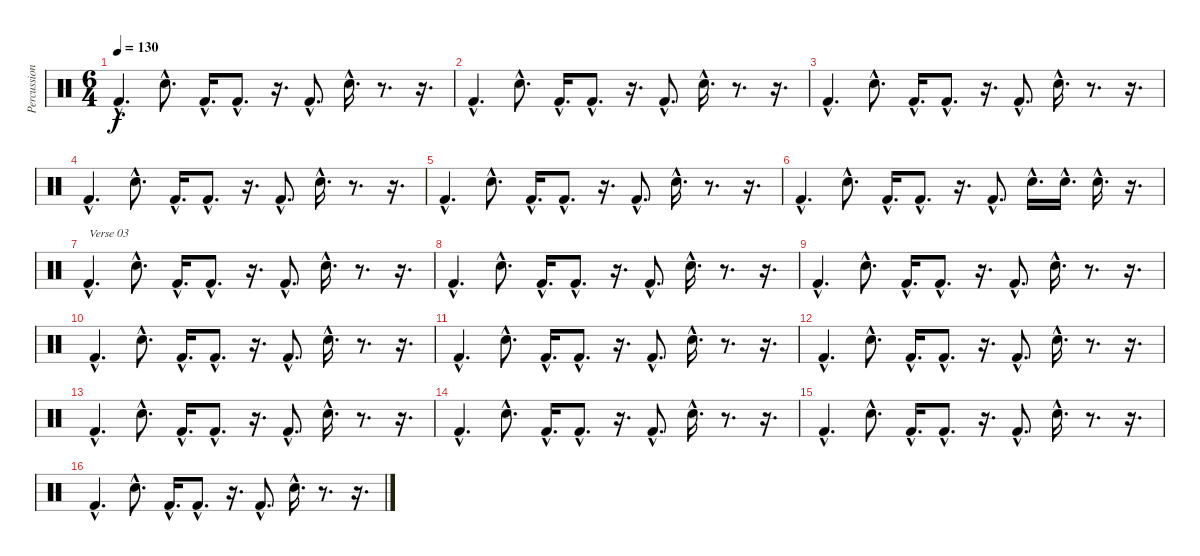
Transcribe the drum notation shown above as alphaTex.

\track ("Percussion" "Percussion") {instrument percussion}
\staff {score}
\articulation defaults
\ts (6 4)
\tempo 130
\clef neutral
\ks c "Kick (hit) 2"{hac}.4{d dy f} "Snare (hit) 2"{hac}.8{d} "Kick (hit) 2"{hac}.16{d} "Kick (hit) 2"{hac}.8{d}
r.16{d} "Kick (hit) 2"{hac}.8{d} "Snare (hit) 2"{hac}.16{d} r.8{d} r.16{d} |
"Kick (hit) 2"{hac}.4{d} "Snare (hit) 2"{hac}.8{d} "Kick (hit) 2"{hac}.16{d} "Kick (hit) 2"{hac}.8{d} r.16{d} "Kick (hit) 2"{hac}.8{d} "Snare (hit) 2"{hac}.16{d} r.8{d} r.16{d} |
"Kick (hit) 2"{hac}.4{d} "Snare (hit) 2"{hac}.8{d} "Kick (hit) 2"{hac}.16{d} "Kick (hit) 2"{hac}.8{d} r.16{d} "Kick (hit) 2"{hac}.8{d} "Snare (hit) 2"{hac}.16{d} r.8{d} r.16{d} |
"Kick (hit) 2"{hac}.4{d} "Snare (hit) 2"{hac}.8{d} "Kick (hit) 2"{hac}.16{d} "Kick (hit) 2"{hac}.8{d} r.16{d} "Kick (hit) 2"{hac}.8{d} "Snare (hit) 2"{hac}.16{d} r.8{d} r.16{d} |
"Kick (hit) 2"{hac}.4{d} "Snare (hit) 2"{hac}.8{d} "Kick (hit) 2"{hac}.16{d} "Kick (hit) 2"{hac}.8{d} r.16{d} "Kick (hit) 2"{hac}.8{d} "Snare (hit) 2"{hac}.16{d} r.8{d} r.16{d} |
"Kick (hit) 2"{hac}.4{d} "Snare (hit) 2"{hac}.8{d} "Kick (hit) 2"{hac}.16{d} "Kick (hit) 2"{hac}.8{d} r.16{d} "Kick (hit) 2"{hac}.8{d} "Snare (hit) 2"{hac}.16{d} "Snare (hit) 2"{hac}.16{d} "Snare (hit) 2"{hac}.16{d} r.16{d} |
"Kick (hit) 2"{hac}.4{d txt "Verse 03"} "Snare (hit) 2"{hac}.8{d} "Kick (hit) 2"{hac}.16{d} "Kick (hit) 2"{hac}.8{d} r.16{d} "Kick (hit) 2"{hac}.8{d} "Snare (hit) 2"{hac}.16{d} r.8{d} r.16{d} |
"Kick (hit) 2"{hac}.4{d} "Snare (hit) 2"{hac}.8{d} "Kick (hit) 2"{hac}.16{d} "Kick (hit) 2"{hac}.8{d} r.16{d} "Kick (hit) 2"{hac}.8{d} "Snare (hit) 2"{hac}.16{d} r.8{d} r.16{d} |
"Kick (hit) 2"{hac}.4{d} "Snare (hit) 2"{hac}.8{d} "Kick (hit) 2"{hac}.16{d} "Kick (hit) 2"{hac}.8{d} r.16{d} "Kick (hit) 2"{hac}.8{d} "Snare (hit) 2"{hac}.16{d} r.8{d} r.16{d} |
"Kick (hit) 2"{hac}.4{d} "Snare (hit) 2"{hac}.8{d} "Kick (hit) 2"{hac}.16{d} "Kick (hit) 2"{hac}.8{d} r.16{d} "Kick (hit) 2"{hac}.8{d} "Snare (hit) 2"{hac}.16{d} r.8{d} r.16{d} |
"Kick (hit) 2"{hac}.4{d} "Snare (hit) 2"{hac}.8{d} "Kick (hit) 2"{hac}.16{d} "Kick (hit) 2"{hac}.8{d} r.16{d} "Kick (hit) 2"{hac}.8{d} "Snare (hit) 2"{hac}.16{d} r.8{d} r.16{d} |
"Kick (hit) 2"{hac}.4{d} "Snare (hit) 2"{hac}.8{d} "Kick (hit) 2"{hac}.16{d} "Kick (hit) 2"{hac}.8{d} r.16{d} "Kick (hit) 2"{hac}.8{d} "Snare (hit) 2"{hac}.16{d} r.8{d} r.16{d} |
"Kick (hit) 2"{hac}.4{d} "Snare (hit) 2"{hac}.8{d} "Kick (hit) 2"{hac}.16{d} "Kick (hit) 2"{hac}.8{d} r.16{d} "Kick (hit) 2"{hac}.8{d} "Snare (hit) 2"{hac}.16{d} r.8{d} r.16{d} |
"Kick (hit) 2"{hac}.4{d} "Snare (hit) 2"{hac}.8{d} "Kick (hit) 2"{hac}.16{d} "Kick (hit) 2"{hac}.8{d} r.16{d} "Kick (hit) 2"{hac}.8{d} "Snare (hit) 2"{hac}.16{d} r.8{d} r.16{d} |
"Kick (hit) 2"{hac}.4{d} "Snare (hit) 2"{hac}.8{d} "Kick (hit) 2"{hac}.16{d} "Kick (hit) 2"{hac}.8{d} r.16{d} "Kick (hit) 2"{hac}.8{d} "Snare (hit) 2"{hac}.16{d} r.8{d} r.16{d} |
"Kick (hit) 2"{hac}.4{d} "Snare (hit) 2"{hac}.8{d} "Kick (hit) 2"{hac}.16{d} "Kick (hit) 2"{hac}.8{d} r.16{d} "Kick (hit) 2"{hac}.8{d} "Snare (hit) 2"{hac}.16{d} r.8{d} r.16{d}
